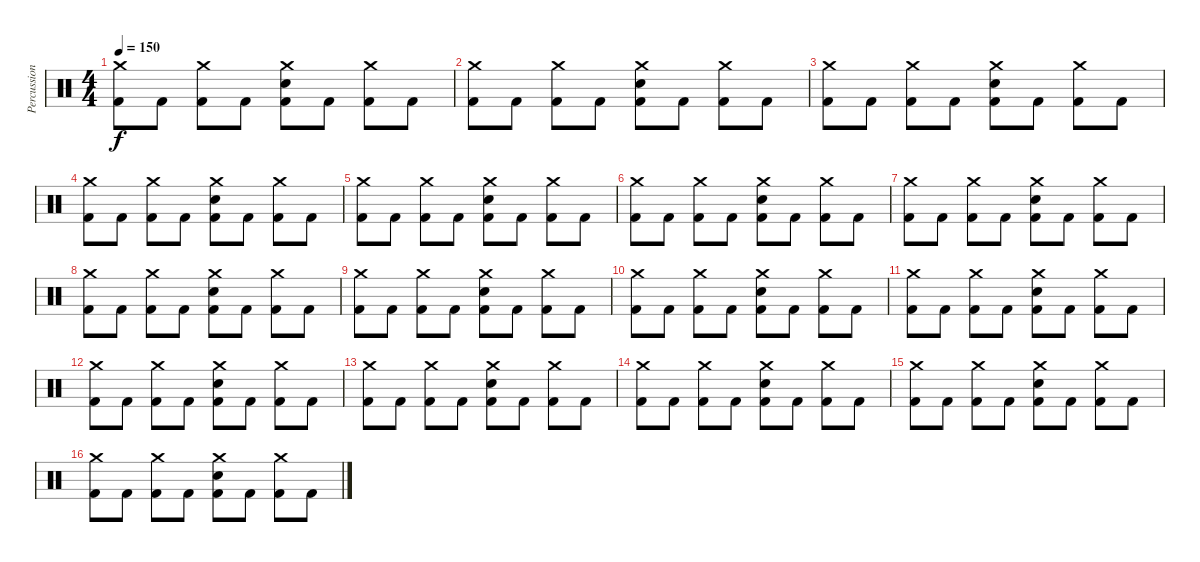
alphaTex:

\track ("Percussion" "Percussion") {instrument percussion}
\staff {score}
\articulation defaults
\ts (4 4)
\tempo 150
\clef neutral
\ks c
("Crash medium (hit)" "Kick (hit) 2").8{dy f} "Kick (hit) 2".8 ("Crash medium (hit)" "Kick (hit) 2").8 "Kick (hit) 2".8 ("Crash medium (hit)" "Electric Snare (hit)" "Kick (hit) 2").8 "Kick (hit) 2".8 ("Crash medium (hit)" "Kick (hit) 2").8 "Kick (hit) 2".8 |
("Crash medium (hit)" "Kick (hit) 2").8 "Kick (hit) 2".8 ("Crash medium (hit)" "Kick (hit) 2").8 "Kick (hit) 2".8 ("Crash medium (hit)" "Electric Snare (hit)" "Kick (hit) 2").8 "Kick (hit) 2".8 ("Crash medium (hit)" "Kick (hit) 2").8 "Kick (hit) 2".8 |
("Crash medium (hit)" "Kick (hit) 2").8 "Kick (hit) 2".8 ("Crash medium (hit)" "Kick (hit) 2").8 "Kick (hit) 2".8 ("Crash medium (hit)" "Electric Snare (hit)" "Kick (hit) 2").8 "Kick (hit) 2".8 ("Crash medium (hit)" "Kick (hit) 2").8 "Kick (hit) 2".8 |
("Crash medium (hit)" "Kick (hit) 2").8 "Kick (hit) 2".8 ("Crash medium (hit)" "Kick (hit) 2").8 "Kick (hit) 2".8 ("Crash medium (hit)" "Electric Snare (hit)" "Kick (hit) 2").8 "Kick (hit) 2".8 ("Crash medium (hit)" "Kick (hit) 2").8 "Kick (hit) 2".8 |
("Crash medium (hit)" "Kick (hit) 2").8 "Kick (hit) 2".8 ("Crash medium (hit)" "Kick (hit) 2").8 "Kick (hit) 2".8 ("Crash medium (hit)" "Electric Snare (hit)" "Kick (hit) 2").8 "Kick (hit) 2".8 ("Crash medium (hit)" "Kick (hit) 2").8 "Kick (hit) 2".8 |
("Crash medium (hit)" "Kick (hit) 2").8 "Kick (hit) 2".8 ("Crash medium (hit)" "Kick (hit) 2").8 "Kick (hit) 2".8 ("Crash medium (hit)" "Electric Snare (hit)" "Kick (hit) 2").8 "Kick (hit) 2".8 ("Crash medium (hit)" "Kick (hit) 2").8 "Kick (hit) 2".8 |
("Crash medium (hit)" "Kick (hit) 2").8 "Kick (hit) 2".8 ("Crash medium (hit)" "Kick (hit) 2").8 "Kick (hit) 2".8 ("Crash medium (hit)" "Electric Snare (hit)" "Kick (hit) 2").8 "Kick (hit) 2".8 ("Crash medium (hit)" "Kick (hit) 2").8 "Kick (hit) 2".8 |
("Crash medium (hit)" "Kick (hit) 2").8 "Kick (hit) 2".8 ("Crash medium (hit)" "Kick (hit) 2").8 "Kick (hit) 2".8 ("Crash medium (hit)" "Electric Snare (hit)" "Kick (hit) 2").8 "Kick (hit) 2".8 ("Crash medium (hit)" "Kick (hit) 2").8 "Kick (hit) 2".8 |
("Crash medium (hit)" "Kick (hit) 2").8 "Kick (hit) 2".8 ("Crash medium (hit)" "Kick (hit) 2").8 "Kick (hit) 2".8 ("Crash medium (hit)" "Electric Snare (hit)" "Kick (hit) 2").8 "Kick (hit) 2".8 ("Crash medium (hit)" "Kick (hit) 2").8 "Kick (hit) 2".8 |
("Crash medium (hit)" "Kick (hit) 2").8 "Kick (hit) 2".8 ("Crash medium (hit)" "Kick (hit) 2").8 "Kick (hit) 2".8 ("Crash medium (hit)" "Electric Snare (hit)" "Kick (hit) 2").8 "Kick (hit) 2".8 ("Crash medium (hit)" "Kick (hit) 2").8 "Kick (hit) 2".8 |
("Crash medium (hit)" "Kick (hit) 2").8 "Kick (hit) 2".8 ("Crash medium (hit)" "Kick (hit) 2").8 "Kick (hit) 2".8 ("Crash medium (hit)" "Electric Snare (hit)" "Kick (hit) 2").8 "Kick (hit) 2".8 ("Crash medium (hit)" "Kick (hit) 2").8 "Kick (hit) 2".8 |
("Crash medium (hit)" "Kick (hit) 2").8 "Kick (hit) 2".8 ("Crash medium (hit)" "Kick (hit) 2").8 "Kick (hit) 2".8 ("Crash medium (hit)" "Electric Snare (hit)" "Kick (hit) 2").8 "Kick (hit) 2".8 ("Crash medium (hit)" "Kick (hit) 2").8 "Kick (hit) 2".8 |
("Crash medium (hit)" "Kick (hit) 2").8 "Kick (hit) 2".8 ("Crash medium (hit)" "Kick (hit) 2").8 "Kick (hit) 2".8 ("Crash medium (hit)" "Electric Snare (hit)" "Kick (hit) 2").8 "Kick (hit) 2".8 ("Crash medium (hit)" "Kick (hit) 2").8 "Kick (hit) 2".8 |
("Crash medium (hit)" "Kick (hit) 2").8 "Kick (hit) 2".8 ("Crash medium (hit)" "Kick (hit) 2").8 "Kick (hit) 2".8 ("Crash medium (hit)" "Electric Snare (hit)" "Kick (hit) 2").8 "Kick (hit) 2".8 ("Crash medium (hit)" "Kick (hit) 2").8 "Kick (hit) 2".8 |
("Crash medium (hit)" "Kick (hit) 2").8 "Kick (hit) 2".8 ("Crash medium (hit)" "Kick (hit) 2").8 "Kick (hit) 2".8 ("Crash medium (hit)" "Electric Snare (hit)" "Kick (hit) 2").8 "Kick (hit) 2".8 ("Crash medium (hit)" "Kick (hit) 2").8 "Kick (hit) 2".8 |
("Crash medium (hit)" "Kick (hit) 2").8 "Kick (hit) 2".8 ("Crash medium (hit)" "Kick (hit) 2").8 "Kick (hit) 2".8 ("Crash medium (hit)" "Electric Snare (hit)" "Kick (hit) 2").8 "Kick (hit) 2".8 ("Crash medium (hit)" "Kick (hit) 2").8 "Kick (hit) 2".8
